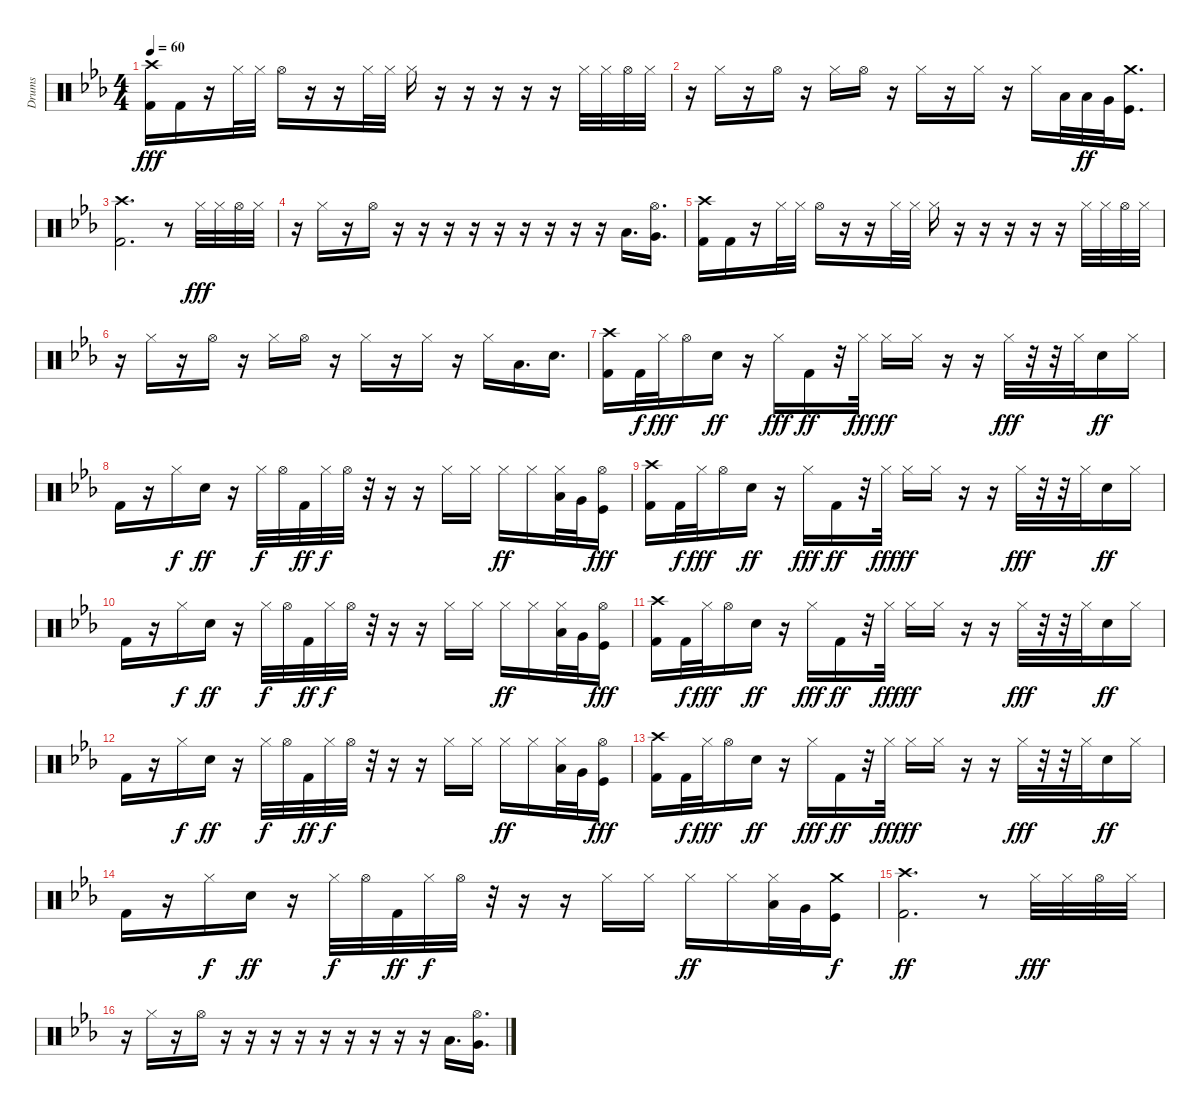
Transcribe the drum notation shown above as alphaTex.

\track ("Drums" "Drums") {instrument percussion}
\staff {score}
\articulation defaults
\ts (4 4)
\tempo 60
\clef neutral
\ks eb
("Crash high (hit)" "Kick (hit) 2").16{dy fff} "Kick (hit) 2".16 r.16 "Hi-Hat (closed)".32 "Hi-Hat (closed)".32 "Hi-Hat (open)".16 r.16 r.16 "Hi-Hat (closed)".32 "Hi-Hat (closed)".32 "Hi-Hat (closed)".16 r.16 r.16 r.16 r.16 r.16 "Hi-Hat (closed)".32 "Hi-Hat (closed)".32 "Hi-Hat (open)".32 "Hi-Hat (closed)".32 |
r.16 "Hi-Hat (closed)".16 r.16 "Hi-Hat (open)".16 r.16 "Hi-Hat (closed)".16 "Hi-Hat (open)".16 r.16 "Hi-Hat (closed)".16 r.16 "Hi-Hat (closed)".16 r.16 "Hi-Hat (closed)".16 "Low Tom (hit)".32 "Low Tom (hit)".32{dy ff} "Very Low Tom (hit)".32 ("Crash medium (hit)" "Kick (hit)").16{d} |
("Crash high (hit)" "Kick (hit) 2").2{d} r.8 "Hi-Hat (closed)".32{dy fff} "Hi-Hat (closed)".32 "Hi-Hat (open)".32 "Hi-Hat (closed)".32 |
r.16 "Hi-Hat (closed)".16 r.16 "Hi-Hat (open)".16 r.16 r.16 r.16 r.16 r.16 r.16 r.16 r.16 r.16 "Low Tom (hit)".16{d} ("Hi-Hat (open)" "Very Low Tom (hit)").16{d} |
("Crash high (hit)" "Kick (hit) 2").16 "Kick (hit) 2".16 r.16 "Hi-Hat (closed)".32 "Hi-Hat (closed)".32 "Hi-Hat (open)".16 r.16 r.16 "Hi-Hat (closed)".32 "Hi-Hat (closed)".32 "Hi-Hat (closed)".16 r.16 r.16 r.16 r.16 r.16 "Hi-Hat (closed)".32 "Hi-Hat (closed)".32 "Hi-Hat (open)".32 "Hi-Hat (closed)".32 |
r.16 "Hi-Hat (closed)".16 r.16 "Hi-Hat (open)".16 r.16 "Hi-Hat (closed)".16 "Hi-Hat (open)".16 r.16 "Hi-Hat (closed)".16 r.16 "Hi-Hat (closed)".16 r.16 "Hi-Hat (closed)".16 "Low Tom (hit)".16{d} "Electric Snare (hit)".16{d} |
("Crash high (hit)" "Kick (hit) 2").16 "Kick (hit) 2".32{dy f} "Hi-Hat (closed)".32{dy fff} "Hi-Hat (open)".16 "Electric Snare (hit)".16{dy ff} r.16 "Hi-Hat (closed)".16{dy fff} "Kick (hit) 2".16{dy ff} r.32 "Hi-Hat (closed)".32{dy fff} "Hi-Hat (closed)".16{dy ff} "Hi-Hat (closed)".16 r.16 r.16 "Hi-Hat (closed)".32{dy fff} r.32 r.32 "Hi-Hat (closed)".32 "Electric Snare (hit)".16{dy ff} "Hi-Hat (closed)".16 |
"Kick (hit) 2".16 r.16 "Hi-Hat (closed)".16{dy f} "Electric Snare (hit)".16{dy ff} r.16 "Hi-Hat (closed)".32{dy f} "Hi-Hat (open)".32 "Kick (hit) 2".32{dy ff} "Hi-Hat (closed)".32{dy f} "Hi-Hat (open)".32 r.32 r.16 r.16 "Hi-Hat (closed)".16 "Hi-Hat (closed)".16 "Hi-Hat (closed)".16{dy ff} "Hi-Hat (closed)".16 ("Hi-Hat (closed)" "Low Tom (hit)").32 "Very Low Tom (hit)".32 ("Hi-Hat (open)" "Kick (hit)").16{dy fff} |
("Crash high (hit)" "Kick (hit) 2").16 "Kick (hit) 2".32{dy f} "Hi-Hat (closed)".32{dy fff} "Hi-Hat (open)".16 "Electric Snare (hit)".16{dy ff} r.16 "Hi-Hat (closed)".16{dy fff} "Kick (hit) 2".16{dy ff} r.32 "Hi-Hat (closed)".32{dy fff} "Hi-Hat (closed)".16{dy ff} "Hi-Hat (closed)".16 r.16 r.16 "Hi-Hat (closed)".32{dy fff} r.32 r.32 "Hi-Hat (closed)".32 "Electric Snare (hit)".16{dy ff} "Hi-Hat (closed)".16 |
"Kick (hit) 2".16 r.16 "Hi-Hat (closed)".16{dy f} "Electric Snare (hit)".16{dy ff} r.16 "Hi-Hat (closed)".32{dy f} "Hi-Hat (open)".32 "Kick (hit) 2".32{dy ff} "Hi-Hat (closed)".32{dy f} "Hi-Hat (open)".32 r.32 r.16 r.16 "Hi-Hat (closed)".16 "Hi-Hat (closed)".16 "Hi-Hat (closed)".16{dy ff} "Hi-Hat (closed)".16 ("Hi-Hat (closed)" "Low Tom (hit)").32 "Very Low Tom (hit)".32 ("Hi-Hat (open)" "Kick (hit)").16{dy fff} |
("Crash high (hit)" "Kick (hit) 2").16 "Kick (hit) 2".32{dy f} "Hi-Hat (closed)".32{dy fff} "Hi-Hat (open)".16 "Electric Snare (hit)".16{dy ff} r.16 "Hi-Hat (closed)".16{dy fff} "Kick (hit) 2".16{dy ff} r.32 "Hi-Hat (closed)".32{dy fff} "Hi-Hat (closed)".16{dy ff} "Hi-Hat (closed)".16 r.16 r.16 "Hi-Hat (closed)".32{dy fff} r.32 r.32 "Hi-Hat (closed)".32 "Electric Snare (hit)".16{dy ff} "Hi-Hat (closed)".16 |
"Kick (hit) 2".16 r.16 "Hi-Hat (closed)".16{dy f} "Electric Snare (hit)".16{dy ff} r.16 "Hi-Hat (closed)".32{dy f} "Hi-Hat (open)".32 "Kick (hit) 2".32{dy ff} "Hi-Hat (closed)".32{dy f} "Hi-Hat (open)".32 r.32 r.16 r.16 "Hi-Hat (closed)".16 "Hi-Hat (closed)".16 "Hi-Hat (closed)".16{dy ff} "Hi-Hat (closed)".16 ("Hi-Hat (closed)" "Low Tom (hit)").32 "Very Low Tom (hit)".32 ("Hi-Hat (open)" "Kick (hit)").16{dy fff} |
("Crash high (hit)" "Kick (hit) 2").16 "Kick (hit) 2".32{dy f} "Hi-Hat (closed)".32{dy fff} "Hi-Hat (open)".16 "Electric Snare (hit)".16{dy ff} r.16 "Hi-Hat (closed)".16{dy fff} "Kick (hit) 2".16{dy ff} r.32 "Hi-Hat (closed)".32{dy fff} "Hi-Hat (closed)".16{dy ff} "Hi-Hat (closed)".16 r.16 r.16 "Hi-Hat (closed)".32{dy fff} r.32 r.32 "Hi-Hat (closed)".32 "Electric Snare (hit)".16{dy ff} "Hi-Hat (closed)".16 |
"Kick (hit) 2".16 r.16 "Hi-Hat (closed)".16{dy f} "Electric Snare (hit)".16{dy ff} r.16 "Hi-Hat (closed)".32{dy f} "Hi-Hat (open)".32 "Kick (hit) 2".32{dy ff} "Hi-Hat (closed)".32{dy f} "Hi-Hat (open)".32 r.32 r.16 r.16 "Hi-Hat (closed)".16 "Hi-Hat (closed)".16 "Hi-Hat (closed)".16{dy ff} "Hi-Hat (closed)".16 ("Hi-Hat (closed)" "Low Tom (hit)").32 "Very Low Tom (hit)".32 ("Crash medium (hit)" "Kick (hit)").16{dy f} |
("Crash high (hit)" "Kick (hit) 2").2{d dy ff} r.8 "Hi-Hat (closed)".32{dy fff} "Hi-Hat (closed)".32 "Hi-Hat (open)".32 "Hi-Hat (closed)".32 |
r.16 "Hi-Hat (closed)".16 r.16 "Hi-Hat (open)".16 r.16 r.16 r.16 r.16 r.16 r.16 r.16 r.16 r.16 "Low Tom (hit)".16{d} ("Hi-Hat (open)" "Very Low Tom (hit)").16{d}
